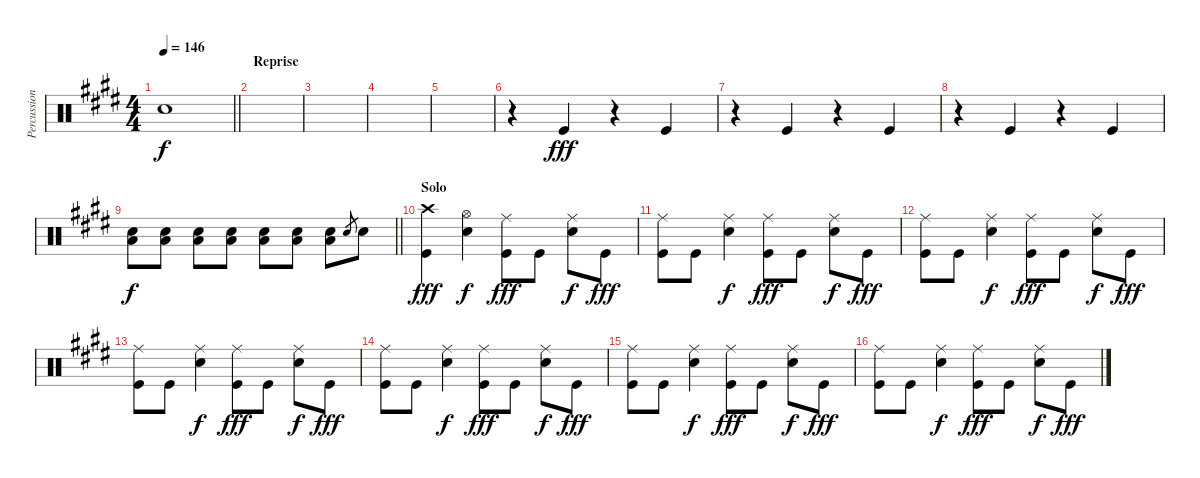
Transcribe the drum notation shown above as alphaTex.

\track ("Percussion" "Percussion") {instrument percussion}
\staff {score}
\articulation defaults
\ts (4 4)
\tempo 146
\clef neutral
\barLineRight lightlight
\ks e "Snare (hit)"{t}.1{dy f}
|
\section ("" "Reprise")
|
|
|
|
r.4 "Kick (hit)".4{dy fff} r.4 "Kick (hit)".4 |
r.4 "Kick (hit)".4 r.4 "Kick (hit)".4 |
r.4 "Kick (hit)".4 r.4 "Kick (hit)".4 |
\barLineRight lightlight
("Low Tom (hit)" "Snare (hit) 2").8{dy f} ("Low Tom (hit)" "Snare (hit) 2").8 ("Low Tom (hit)" "Snare (hit) 2").8 ("Low Tom (hit)" "Snare (hit) 2").8 ("Low Tom (hit)" "Snare (hit) 2").8 ("Low Tom (hit)" "Snare (hit) 2").8 ("Low Tom (hit)" "Snare (hit) 2").8 "Snare (hit) 2".8{gr} "Snare (hit) 2".8 |
\section ("" "Solo")
("Crash high (hit)" "Kick (hit)").4{dy fff} ("Hi-Hat (open)" "Snare (hit) 2").4{dy f} ("Ride (middle)" "Kick (hit)").8{dy fff} "Kick (hit)".8 ("Ride (middle)" "Snare (hit) 2").8{dy f} "Kick (hit)".8{dy fff} |
("Ride (middle)" "Kick (hit)").8 "Kick (hit)".8 ("Ride (middle)" "Snare (hit) 2").4{dy f} ("Ride (middle)" "Kick (hit)").8{dy fff} "Kick (hit)".8 ("Ride (middle)" "Snare (hit) 2").8{dy f} "Kick (hit)".8{dy fff} |
("Ride (middle)" "Kick (hit)").8 "Kick (hit)".8 ("Ride (middle)" "Snare (hit) 2").4{dy f} ("Ride (middle)" "Kick (hit)").8{dy fff} "Kick (hit)".8 ("Ride (middle)" "Snare (hit) 2").8{dy f} "Kick (hit)".8{dy fff} |
("Ride (middle)" "Kick (hit)").8 "Kick (hit)".8 ("Ride (middle)" "Snare (hit) 2").4{dy f} ("Ride (middle)" "Kick (hit)").8{dy fff} "Kick (hit)".8 ("Ride (middle)" "Snare (hit) 2").8{dy f} "Kick (hit)".8{dy fff} |
("Ride (middle)" "Kick (hit)").8 "Kick (hit)".8 ("Ride (middle)" "Snare (hit) 2").4{dy f} ("Ride (middle)" "Kick (hit)").8{dy fff} "Kick (hit)".8 ("Ride (middle)" "Snare (hit) 2").8{dy f} "Kick (hit)".8{dy fff} |
("Ride (middle)" "Kick (hit)").8 "Kick (hit)".8 ("Ride (middle)" "Snare (hit) 2").4{dy f} ("Ride (middle)" "Kick (hit)").8{dy fff} "Kick (hit)".8 ("Ride (middle)" "Snare (hit) 2").8{dy f} "Kick (hit)".8{dy fff} |
("Ride (middle)" "Kick (hit)").8 "Kick (hit)".8 ("Ride (middle)" "Snare (hit) 2").4{dy f} ("Ride (middle)" "Kick (hit)").8{dy fff} "Kick (hit)".8 ("Ride (middle)" "Snare (hit) 2").8{dy f} "Kick (hit)".8{dy fff}
